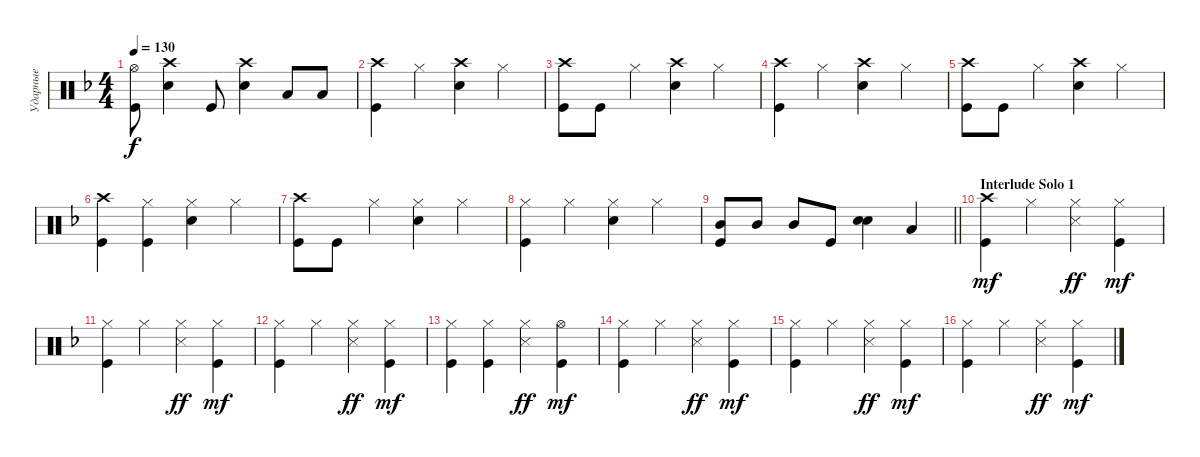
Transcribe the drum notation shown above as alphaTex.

\track ("Ударные" "Ударные") {instrument percussion}
\staff {score}
\articulation defaults
\ts (4 4)
\tempo 130
\clef neutral
\ks dminor
("Kick (hit)" "Hi-Hat (open)").8{dy f} ("Snare (hit) 2" "Crash high (hit)").4 "Kick (hit)".8 ("Snare (hit) 2" "Crash high (hit)").4 "Low Tom (hit)".8 "Low Tom (hit)".8 |
("Kick (hit)" "Crash high (hit)").4 "Hi-Hat (closed)".4 ("Snare (hit) 2" "Crash high (hit)").4 "Hi-Hat (closed)".4 |
("Crash high (hit)" "Kick (hit)").8 "Kick (hit)".8 "Hi-Hat (closed)".4 ("Crash high (hit)" "Snare (hit) 2").4 "Hi-Hat (closed)".4 |
("Kick (hit)" "Crash high (hit)").4 "Hi-Hat (closed)".4 ("Snare (hit) 2" "Crash high (hit)").4 "Hi-Hat (closed)".4 |
("Crash high (hit)" "Kick (hit)").8 "Kick (hit)".8 "Hi-Hat (closed)".4 ("Crash high (hit)" "Snare (hit) 2").4 "Hi-Hat (closed)".4 |
("Kick (hit)" "Crash high (hit)").4 ("Hi-Hat (closed)" "Kick (hit)").4 ("Snare (hit) 2" "Hi-Hat (closed)").4 "Hi-Hat (closed)".4 |
("Crash high (hit)" "Kick (hit)").8 "Kick (hit)".8 "Hi-Hat (closed)".4 ("Hi-Hat (closed)" "Snare (hit) 2").4 "Hi-Hat (closed)".4 |
("Kick (hit)" "Hi-Hat (closed)").4 "Hi-Hat (closed)".4 ("Snare (hit) 2" "Hi-Hat (closed)").4 "Hi-Hat (closed)".4 |
\barLineRight lightlight
("Mid Tom (hit)" "Kick (hit)").8 "Mid Tom (hit)".8 "Mid Tom (hit)".8 "Kick (hit)".8 ("Snare (hit) 2" "Snare (hit) 2").4{bd 120} "Low Tom (hit)".4 |
\section ("" "Interlude Solo 1")
("Crash high (hit)" "Kick (hit)").4{dy mf} "Hi-Hat (closed)".4 ("Hi-Hat (closed)" "Snare (side stick) 3").4{dy ff} ("Hi-Hat (closed)" "Kick (hit)").4{dy mf} |
("Hi-Hat (closed)" "Kick (hit)").4 "Hi-Hat (closed)".4 ("Hi-Hat (closed)" "Snare (side stick) 3").4{dy ff} ("Hi-Hat (closed)" "Kick (hit)").4{dy mf} |
("Hi-Hat (closed)" "Kick (hit)").4 "Hi-Hat (closed)".4 ("Hi-Hat (closed)" "Snare (side stick) 3").4{dy ff} ("Hi-Hat (closed)" "Kick (hit)").4{dy mf} |
("Hi-Hat (closed)" "Kick (hit)").4 ("Hi-Hat (closed)" "Kick (hit)").4 ("Hi-Hat (closed)" "Snare (side stick) 3").4{dy ff} ("Hi-Hat (open)" "Kick (hit)").4{dy mf} |
("Hi-Hat (closed)" "Kick (hit)").4 "Hi-Hat (closed)".4 ("Hi-Hat (closed)" "Snare (side stick) 3").4{dy ff} ("Hi-Hat (closed)" "Kick (hit)").4{dy mf} |
("Hi-Hat (closed)" "Kick (hit)").4 "Hi-Hat (closed)".4 ("Hi-Hat (closed)" "Snare (side stick) 3").4{dy ff} ("Hi-Hat (closed)" "Kick (hit)").4{dy mf} |
("Hi-Hat (closed)" "Kick (hit)").4 "Hi-Hat (closed)".4 ("Hi-Hat (closed)" "Snare (side stick) 3").4{dy ff} ("Hi-Hat (closed)" "Kick (hit)").4{dy mf}
